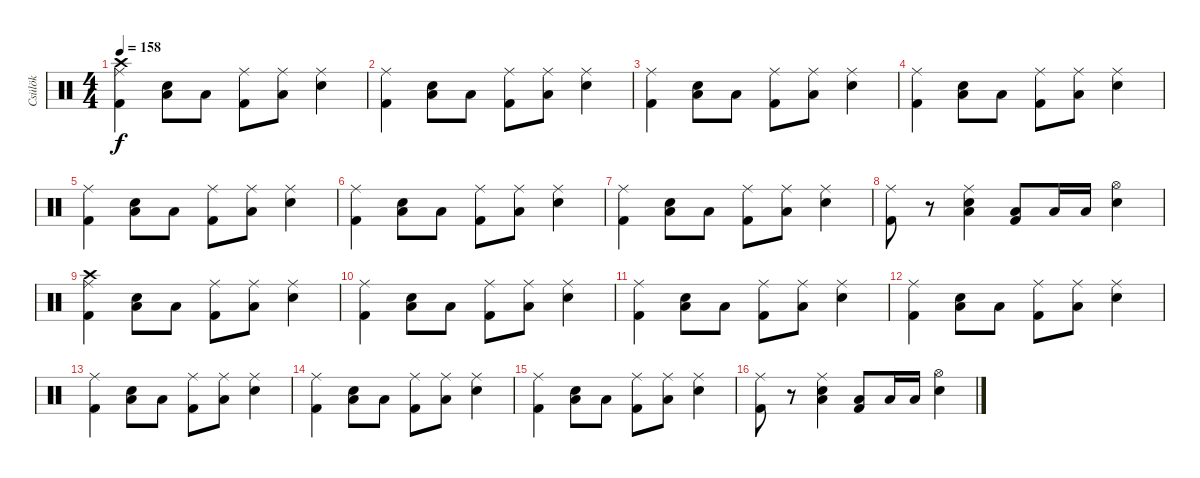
\track ("Csülök" "Csülök") {instrument percussion}
\staff {score}
\articulation defaults
\ts (4 4)
\tempo 158
\clef neutral
\ks c
("Crash high (hit)" "Kick (hit) 2" "Ride (middle)").4{dy f} ("Snare (hit) 2" "Low Tom (hit)").8 "Low Tom (hit)".8 ("Kick (hit) 2" "Ride (middle)").8 ("Low Tom (hit)" "Ride (middle)").8 ("Snare (hit) 2" "Ride (middle)").4 |
("Kick (hit) 2" "Ride (middle)").4 ("Snare (hit) 2" "Low Tom (hit)").8 "Low Tom (hit)".8 ("Kick (hit) 2" "Ride (middle)").8 ("Low Tom (hit)" "Ride (middle)").8 ("Snare (hit) 2" "Ride (middle)").4 |
("Kick (hit) 2" "Ride (middle)").4 ("Snare (hit) 2" "Low Tom (hit)").8 "Low Tom (hit)".8 ("Kick (hit) 2" "Ride (middle)").8 ("Low Tom (hit)" "Ride (middle)").8 ("Snare (hit) 2" "Ride (middle)").4 |
("Kick (hit) 2" "Ride (middle)").4 ("Snare (hit) 2" "Low Tom (hit)").8 "Low Tom (hit)".8 ("Kick (hit) 2" "Ride (middle)").8 ("Low Tom (hit)" "Ride (middle)").8 ("Snare (hit) 2" "Ride (middle)").4 |
("Kick (hit) 2" "Ride (middle)").4 ("Snare (hit) 2" "Low Tom (hit)").8 "Low Tom (hit)".8 ("Kick (hit) 2" "Ride (middle)").8 ("Low Tom (hit)" "Ride (middle)").8 ("Snare (hit) 2" "Ride (middle)").4 |
("Kick (hit) 2" "Ride (middle)").4 ("Snare (hit) 2" "Low Tom (hit)").8 "Low Tom (hit)".8 ("Kick (hit) 2" "Ride (middle)").8 ("Low Tom (hit)" "Ride (middle)").8 ("Snare (hit) 2" "Ride (middle)").4 |
("Kick (hit) 2" "Ride (middle)").4 ("Snare (hit) 2" "Low Tom (hit)").8 "Low Tom (hit)".8 ("Kick (hit) 2" "Ride (middle)").8 ("Low Tom (hit)" "Ride (middle)").8 ("Snare (hit) 2" "Ride (middle)").4 |
("Kick (hit) 2" "Ride (middle)").8 r.8 ("Snare (hit) 2" "Low Tom (hit)" "Ride (middle)").4 ("Kick (hit) 2" "Low Tom (hit)").8 "Low Tom (hit)".16 "Low Tom (hit)".16 ("Hi-Hat (open)" "Snare (hit) 2").4 |
("Crash high (hit)" "Kick (hit) 2" "Ride (middle)").4 ("Snare (hit) 2" "Low Tom (hit)").8 "Low Tom (hit)".8 ("Kick (hit) 2" "Ride (middle)").8 ("Low Tom (hit)" "Ride (middle)").8 ("Snare (hit) 2" "Ride (middle)").4 |
("Kick (hit) 2" "Ride (middle)").4 ("Snare (hit) 2" "Low Tom (hit)").8 "Low Tom (hit)".8 ("Kick (hit) 2" "Ride (middle)").8 ("Low Tom (hit)" "Ride (middle)").8 ("Snare (hit) 2" "Ride (middle)").4 |
("Kick (hit) 2" "Ride (middle)").4 ("Snare (hit) 2" "Low Tom (hit)").8 "Low Tom (hit)".8 ("Kick (hit) 2" "Ride (middle)").8 ("Low Tom (hit)" "Ride (middle)").8 ("Snare (hit) 2" "Ride (middle)").4 |
("Kick (hit) 2" "Ride (middle)").4 ("Snare (hit) 2" "Low Tom (hit)").8 "Low Tom (hit)".8 ("Kick (hit) 2" "Ride (middle)").8 ("Low Tom (hit)" "Ride (middle)").8 ("Snare (hit) 2" "Ride (middle)").4 |
("Kick (hit) 2" "Ride (middle)").4 ("Snare (hit) 2" "Low Tom (hit)").8 "Low Tom (hit)".8 ("Kick (hit) 2" "Ride (middle)").8 ("Low Tom (hit)" "Ride (middle)").8 ("Snare (hit) 2" "Ride (middle)").4 |
("Kick (hit) 2" "Ride (middle)").4 ("Snare (hit) 2" "Low Tom (hit)").8 "Low Tom (hit)".8 ("Kick (hit) 2" "Ride (middle)").8 ("Low Tom (hit)" "Ride (middle)").8 ("Snare (hit) 2" "Ride (middle)").4 |
("Kick (hit) 2" "Ride (middle)").4 ("Snare (hit) 2" "Low Tom (hit)").8 "Low Tom (hit)".8 ("Kick (hit) 2" "Ride (middle)").8 ("Low Tom (hit)" "Ride (middle)").8 ("Snare (hit) 2" "Ride (middle)").4 |
("Kick (hit) 2" "Ride (middle)").8 r.8 ("Snare (hit) 2" "Low Tom (hit)" "Ride (middle)").4 ("Kick (hit) 2" "Low Tom (hit)").8 "Low Tom (hit)".16 "Low Tom (hit)".16 ("Hi-Hat (open)" "Snare (hit) 2").4
